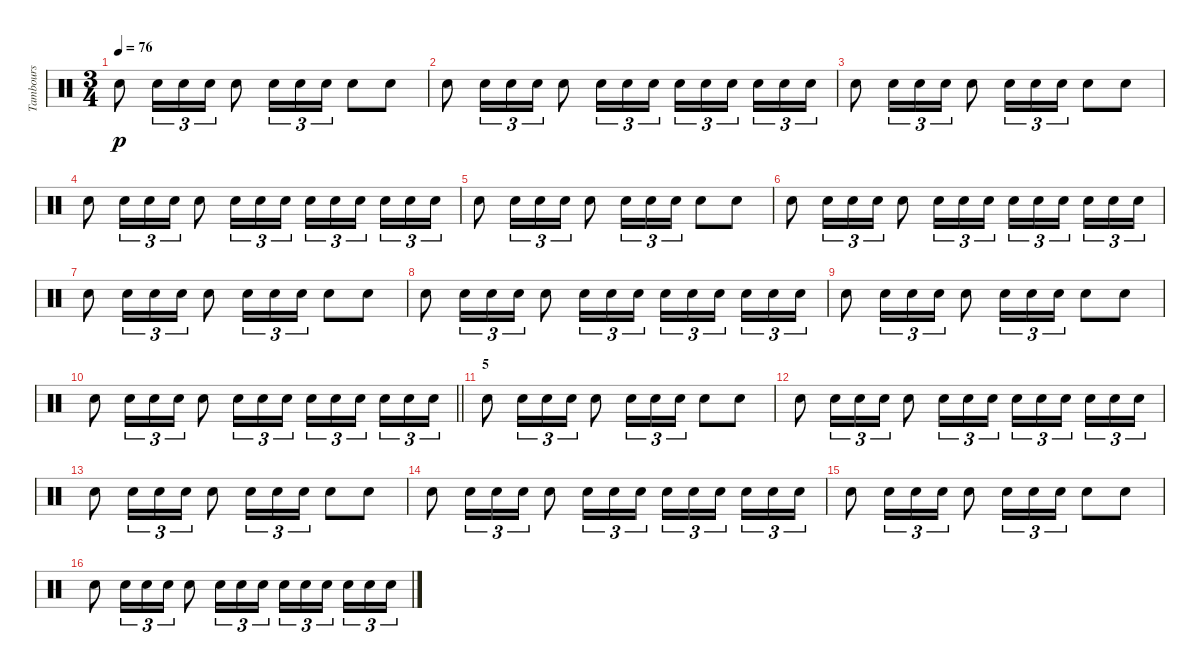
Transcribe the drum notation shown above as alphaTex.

\track ("Tambours" "Tambours") {instrument percussion}
\staff {score}
\articulation defaults
\ts (3 4)
\tempo 76
\clef neutral
\ks c "Snare (hit) 2".8{dy p} "Snare (hit) 2".16{tu (3 2)} "Snare (hit) 2".16{tu (3 2)} "Snare (hit) 2".16{tu (3 2)} "Snare (hit) 2".8 "Snare (hit) 2".16{tu (3 2)} "Snare (hit) 2".16{tu (3 2)} "Snare (hit) 2".16{tu (3 2)} "Snare (hit) 2".8 "Snare (hit) 2".8
|
"Snare (hit) 2".8 "Snare (hit) 2".16{tu (3 2)} "Snare (hit) 2".16{tu (3 2)} "Snare (hit) 2".16{tu (3 2)} "Snare (hit) 2".8 "Snare (hit) 2".16{tu (3 2)} "Snare (hit) 2".16{tu (3 2)} "Snare (hit) 2".16{tu (3 2)} "Snare (hit) 2".16{tu (3 2)} "Snare (hit) 2".16{tu (3 2)} "Snare (hit) 2".16{tu (3 2) beam splitsecondary} "Snare (hit) 2".16{tu (3 2)} "Snare (hit) 2".16{tu (3 2)} "Snare (hit) 2".16{tu (3 2)} |
"Snare (hit) 2".8 "Snare (hit) 2".16{tu (3 2)} "Snare (hit) 2".16{tu (3 2)} "Snare (hit) 2".16{tu (3 2)} "Snare (hit) 2".8 "Snare (hit) 2".16{tu (3 2)} "Snare (hit) 2".16{tu (3 2)} "Snare (hit) 2".16{tu (3 2)} "Snare (hit) 2".8 "Snare (hit) 2".8 |
"Snare (hit) 2".8 "Snare (hit) 2".16{tu (3 2)} "Snare (hit) 2".16{tu (3 2)} "Snare (hit) 2".16{tu (3 2)} "Snare (hit) 2".8 "Snare (hit) 2".16{tu (3 2)} "Snare (hit) 2".16{tu (3 2)} "Snare (hit) 2".16{tu (3 2)} "Snare (hit) 2".16{tu (3 2)} "Snare (hit) 2".16{tu (3 2)} "Snare (hit) 2".16{tu (3 2) beam splitsecondary} "Snare (hit) 2".16{tu (3 2)} "Snare (hit) 2".16{tu (3 2)} "Snare (hit) 2".16{tu (3 2)} |
"Snare (hit) 2".8 "Snare (hit) 2".16{tu (3 2)} "Snare (hit) 2".16{tu (3 2)} "Snare (hit) 2".16{tu (3 2)} "Snare (hit) 2".8 "Snare (hit) 2".16{tu (3 2)} "Snare (hit) 2".16{tu (3 2)} "Snare (hit) 2".16{tu (3 2)} "Snare (hit) 2".8 "Snare (hit) 2".8 |
"Snare (hit) 2".8 "Snare (hit) 2".16{tu (3 2)} "Snare (hit) 2".16{tu (3 2)} "Snare (hit) 2".16{tu (3 2)} "Snare (hit) 2".8 "Snare (hit) 2".16{tu (3 2)} "Snare (hit) 2".16{tu (3 2)} "Snare (hit) 2".16{tu (3 2)} "Snare (hit) 2".16{tu (3 2)} "Snare (hit) 2".16{tu (3 2)} "Snare (hit) 2".16{tu (3 2) beam splitsecondary} "Snare (hit) 2".16{tu (3 2)} "Snare (hit) 2".16{tu (3 2)} "Snare (hit) 2".16{tu (3 2)} |
"Snare (hit) 2".8 "Snare (hit) 2".16{tu (3 2)} "Snare (hit) 2".16{tu (3 2)} "Snare (hit) 2".16{tu (3 2)} "Snare (hit) 2".8 "Snare (hit) 2".16{tu (3 2)} "Snare (hit) 2".16{tu (3 2)} "Snare (hit) 2".16{tu (3 2)} "Snare (hit) 2".8 "Snare (hit) 2".8 |
"Snare (hit) 2".8 "Snare (hit) 2".16{tu (3 2)} "Snare (hit) 2".16{tu (3 2)} "Snare (hit) 2".16{tu (3 2)} "Snare (hit) 2".8 "Snare (hit) 2".16{tu (3 2)} "Snare (hit) 2".16{tu (3 2)} "Snare (hit) 2".16{tu (3 2)} "Snare (hit) 2".16{tu (3 2)} "Snare (hit) 2".16{tu (3 2)} "Snare (hit) 2".16{tu (3 2) beam splitsecondary} "Snare (hit) 2".16{tu (3 2)} "Snare (hit) 2".16{tu (3 2)} "Snare (hit) 2".16{tu (3 2)} |
"Snare (hit) 2".8 "Snare (hit) 2".16{tu (3 2)} "Snare (hit) 2".16{tu (3 2)} "Snare (hit) 2".16{tu (3 2)} "Snare (hit) 2".8 "Snare (hit) 2".16{tu (3 2)} "Snare (hit) 2".16{tu (3 2)} "Snare (hit) 2".16{tu (3 2)} "Snare (hit) 2".8 "Snare (hit) 2".8 |
\barLineRight lightlight "Snare (hit) 2".8 "Snare (hit) 2".16{tu (3 2)} "Snare (hit) 2".16{tu (3 2)} "Snare (hit) 2".16{tu (3 2)} "Snare (hit) 2".8 "Snare (hit) 2".16{tu (3 2)} "Snare (hit) 2".16{tu (3 2)} "Snare (hit) 2".16{tu (3 2)} "Snare (hit) 2".16{tu (3 2)} "Snare (hit) 2".16{tu (3 2)} "Snare (hit) 2".16{tu (3 2) beam splitsecondary} "Snare (hit) 2".16{tu (3 2)} "Snare (hit) 2".16{tu (3 2)} "Snare (hit) 2".16{tu (3 2)}
|
\section ("" "5")
"Snare (hit) 2".8 "Snare (hit) 2".16{tu (3 2)} "Snare (hit) 2".16{tu (3 2)} "Snare (hit) 2".16{tu (3 2)} "Snare (hit) 2".8 "Snare (hit) 2".16{tu (3 2)} "Snare (hit) 2".16{tu (3 2)} "Snare (hit) 2".16{tu (3 2)} "Snare (hit) 2".8 "Snare (hit) 2".8 |
"Snare (hit) 2".8 "Snare (hit) 2".16{tu (3 2)} "Snare (hit) 2".16{tu (3 2)} "Snare (hit) 2".16{tu (3 2)} "Snare (hit) 2".8 "Snare (hit) 2".16{tu (3 2)} "Snare (hit) 2".16{tu (3 2)} "Snare (hit) 2".16{tu (3 2)} "Snare (hit) 2".16{tu (3 2)} "Snare (hit) 2".16{tu (3 2)} "Snare (hit) 2".16{tu (3 2) beam splitsecondary} "Snare (hit) 2".16{tu (3 2)} "Snare (hit) 2".16{tu (3 2)} "Snare (hit) 2".16{tu (3 2)} |
"Snare (hit) 2".8 "Snare (hit) 2".16{tu (3 2)} "Snare (hit) 2".16{tu (3 2)} "Snare (hit) 2".16{tu (3 2)} "Snare (hit) 2".8 "Snare (hit) 2".16{tu (3 2)} "Snare (hit) 2".16{tu (3 2)} "Snare (hit) 2".16{tu (3 2)} "Snare (hit) 2".8 "Snare (hit) 2".8 |
"Snare (hit) 2".8 "Snare (hit) 2".16{tu (3 2)} "Snare (hit) 2".16{tu (3 2)} "Snare (hit) 2".16{tu (3 2)} "Snare (hit) 2".8 "Snare (hit) 2".16{tu (3 2)} "Snare (hit) 2".16{tu (3 2)} "Snare (hit) 2".16{tu (3 2)} "Snare (hit) 2".16{tu (3 2)} "Snare (hit) 2".16{tu (3 2)} "Snare (hit) 2".16{tu (3 2) beam splitsecondary} "Snare (hit) 2".16{tu (3 2)} "Snare (hit) 2".16{tu (3 2)} "Snare (hit) 2".16{tu (3 2)} |
"Snare (hit) 2".8 "Snare (hit) 2".16{tu (3 2)} "Snare (hit) 2".16{tu (3 2)} "Snare (hit) 2".16{tu (3 2)} "Snare (hit) 2".8 "Snare (hit) 2".16{tu (3 2)} "Snare (hit) 2".16{tu (3 2)} "Snare (hit) 2".16{tu (3 2)} "Snare (hit) 2".8 "Snare (hit) 2".8 |
"Snare (hit) 2".8 "Snare (hit) 2".16{tu (3 2)} "Snare (hit) 2".16{tu (3 2)} "Snare (hit) 2".16{tu (3 2)} "Snare (hit) 2".8 "Snare (hit) 2".16{tu (3 2)} "Snare (hit) 2".16{tu (3 2)} "Snare (hit) 2".16{tu (3 2)} "Snare (hit) 2".16{tu (3 2)} "Snare (hit) 2".16{tu (3 2)} "Snare (hit) 2".16{tu (3 2) beam splitsecondary} "Snare (hit) 2".16{tu (3 2)} "Snare (hit) 2".16{tu (3 2)} "Snare (hit) 2".16{tu (3 2)}
